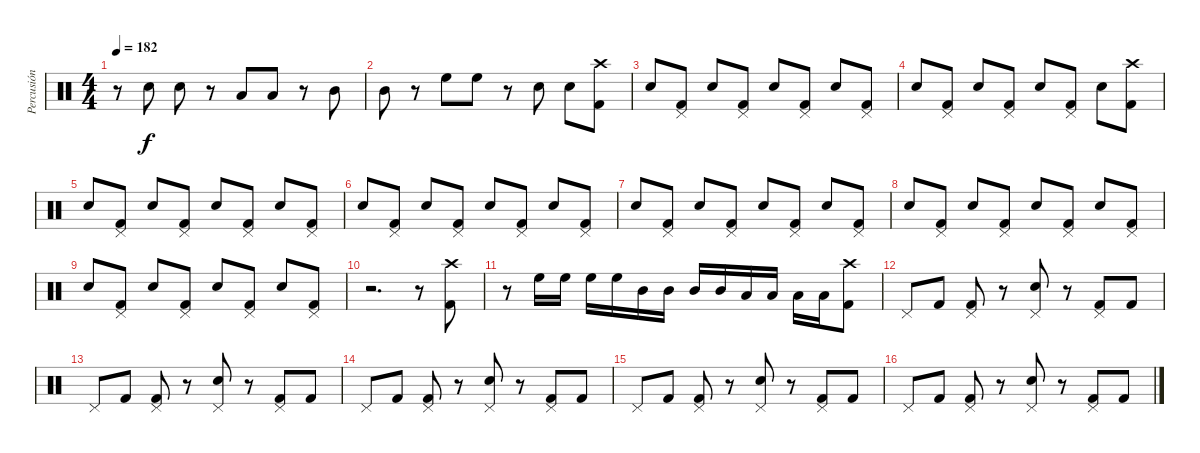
\track ("Percusión" "Percusión") {instrument percussion}
\staff {score}
\articulation defaults
\ts (4 4)
\tempo 182
\clef neutral
\ks c
r.8{dy f} "Electric Snare (hit)".8 "Electric Snare (hit)".8 r.8 "Low Tom (hit)".8 "Low Tom (hit)".8 r.8 "Mid Tom (hit)".8 |
"Mid Tom (hit)".8 r.8 "High Floor Tom (hit)".8 "High Floor Tom (hit)".8 r.8 "Electric Snare (hit)".8 "Electric Snare (hit)".8 ("Crash high (hit)" "Kick (hit) 2").8 |
"Electric Snare (hit)".8 ("Pedal Hi-Hat (hit)" "Kick (hit) 2").8 "Electric Snare (hit)".8 ("Pedal Hi-Hat (hit)" "Kick (hit) 2").8 "Electric Snare (hit)".8 ("Pedal Hi-Hat (hit)" "Kick (hit) 2").8 "Electric Snare (hit)".8 ("Pedal Hi-Hat (hit)" "Kick (hit) 2").8 |
"Electric Snare (hit)".8 ("Pedal Hi-Hat (hit)" "Kick (hit) 2").8 "Electric Snare (hit)".8 ("Pedal Hi-Hat (hit)" "Kick (hit) 2").8 "Electric Snare (hit)".8 ("Pedal Hi-Hat (hit)" "Kick (hit) 2").8 "Electric Snare (hit)".8 ("Crash high (hit)" "Kick (hit) 2").8 |
"Electric Snare (hit)".8 ("Pedal Hi-Hat (hit)" "Kick (hit) 2").8 "Electric Snare (hit)".8 ("Pedal Hi-Hat (hit)" "Kick (hit) 2").8 "Electric Snare (hit)".8 ("Pedal Hi-Hat (hit)" "Kick (hit) 2").8 "Electric Snare (hit)".8 ("Pedal Hi-Hat (hit)" "Kick (hit) 2").8 |
"Electric Snare (hit)".8 ("Pedal Hi-Hat (hit)" "Kick (hit) 2").8 "Electric Snare (hit)".8 ("Pedal Hi-Hat (hit)" "Kick (hit) 2").8 "Electric Snare (hit)".8 ("Pedal Hi-Hat (hit)" "Kick (hit) 2").8 "Electric Snare (hit)".8 ("Pedal Hi-Hat (hit)" "Kick (hit) 2").8 |
"Electric Snare (hit)".8 ("Pedal Hi-Hat (hit)" "Kick (hit) 2").8 "Electric Snare (hit)".8 ("Pedal Hi-Hat (hit)" "Kick (hit) 2").8 "Electric Snare (hit)".8 ("Pedal Hi-Hat (hit)" "Kick (hit) 2").8 "Electric Snare (hit)".8 ("Pedal Hi-Hat (hit)" "Kick (hit) 2").8 |
"Electric Snare (hit)".8 ("Pedal Hi-Hat (hit)" "Kick (hit) 2").8 "Electric Snare (hit)".8 ("Pedal Hi-Hat (hit)" "Kick (hit) 2").8 "Electric Snare (hit)".8 ("Pedal Hi-Hat (hit)" "Kick (hit) 2").8 "Electric Snare (hit)".8 ("Pedal Hi-Hat (hit)" "Kick (hit) 2").8 |
"Electric Snare (hit)".8 ("Pedal Hi-Hat (hit)" "Kick (hit) 2").8 "Electric Snare (hit)".8 ("Pedal Hi-Hat (hit)" "Kick (hit) 2").8 "Electric Snare (hit)".8 ("Pedal Hi-Hat (hit)" "Kick (hit) 2").8 "Electric Snare (hit)".8 ("Pedal Hi-Hat (hit)" "Kick (hit) 2").8 |
r.2{d} r.8 ("Crash high (hit)" "Kick (hit) 2").8 |
r.8 "High Floor Tom (hit)".16 "High Floor Tom (hit)".16 "High Floor Tom (hit)".16 "High Floor Tom (hit)".16 "Mid Tom (hit)".16 "Mid Tom (hit)".16 "Mid Tom (hit)".16 "Mid Tom (hit)".16 "Low Tom (hit)".16 "Low Tom (hit)".16 "Low Tom (hit)".16 "Low Tom (hit)".16 ("Crash high (hit)" "Kick (hit) 2").8 |
"Pedal Hi-Hat (hit)".8 "Kick (hit) 2".8 ("Pedal Hi-Hat (hit)" "Kick (hit) 2").8 r.8 ("Pedal Hi-Hat (hit)" "Electric Snare (hit)").8 r.8 ("Pedal Hi-Hat (hit)" "Kick (hit) 2").8 "Kick (hit) 2".8 |
"Pedal Hi-Hat (hit)".8 "Kick (hit) 2".8 ("Pedal Hi-Hat (hit)" "Kick (hit) 2").8 r.8 ("Pedal Hi-Hat (hit)" "Electric Snare (hit)").8 r.8 ("Pedal Hi-Hat (hit)" "Kick (hit) 2").8 "Kick (hit) 2".8 |
"Pedal Hi-Hat (hit)".8 "Kick (hit) 2".8 ("Pedal Hi-Hat (hit)" "Kick (hit) 2").8 r.8 ("Pedal Hi-Hat (hit)" "Electric Snare (hit)").8 r.8 ("Pedal Hi-Hat (hit)" "Kick (hit) 2").8 "Kick (hit) 2".8 |
"Pedal Hi-Hat (hit)".8 "Kick (hit) 2".8 ("Pedal Hi-Hat (hit)" "Kick (hit) 2").8 r.8 ("Pedal Hi-Hat (hit)" "Electric Snare (hit)").8 r.8 ("Pedal Hi-Hat (hit)" "Kick (hit) 2").8 "Kick (hit) 2".8 |
"Pedal Hi-Hat (hit)".8 "Kick (hit) 2".8 ("Pedal Hi-Hat (hit)" "Kick (hit) 2").8 r.8 ("Pedal Hi-Hat (hit)" "Electric Snare (hit)").8 r.8 ("Pedal Hi-Hat (hit)" "Kick (hit) 2").8 "Kick (hit) 2".8
